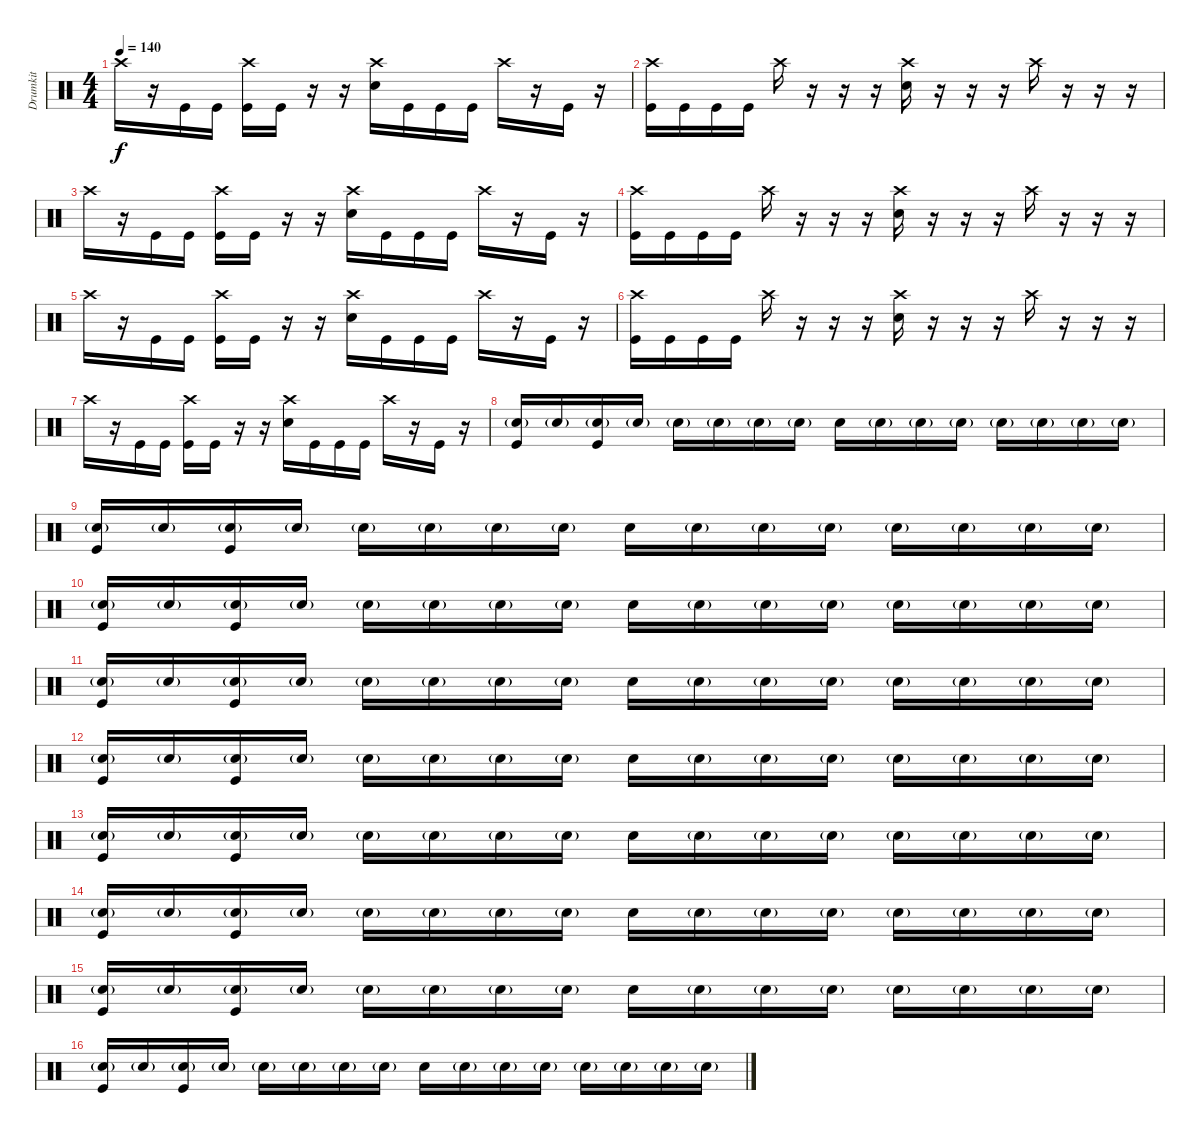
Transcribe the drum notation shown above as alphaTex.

\track ("Drumkit" "Drumkit") {instrument percussion}
\staff {score}
\articulation defaults
\ts (4 4)
\tempo 140
\clef neutral
\ks c "Crash high (hit)".16{dy f}
r.16 "Kick (hit)".16 "Kick (hit)".16 ("Crash high (hit)" "Kick (hit)").16 "Kick (hit)".16 r.16 r.16 ("Crash high (hit)" "Snare (hit) 2").16 "Kick (hit)".16 "Kick (hit)".16 "Kick (hit)".16 "Crash high (hit)".16 r.16 "Kick (hit)".16 r.16 |
("Crash high (hit)" "Kick (hit)").16 "Kick (hit)".16 "Kick (hit)".16 "Kick (hit)".16 "Crash high (hit)".16 r.16 r.16 r.16 ("Crash high (hit)" "Snare (hit) 2").16 r.16 r.16 r.16 "Crash high (hit)".16 r.16 r.16 r.16 |
"Crash high (hit)".16 r.16 "Kick (hit)".16 "Kick (hit)".16 ("Crash high (hit)" "Kick (hit)").16 "Kick (hit)".16 r.16 r.16 ("Crash high (hit)" "Snare (hit) 2").16 "Kick (hit)".16 "Kick (hit)".16 "Kick (hit)".16 "Crash high (hit)".16 r.16 "Kick (hit)".16 r.16 |
("Crash high (hit)" "Kick (hit)").16 "Kick (hit)".16 "Kick (hit)".16 "Kick (hit)".16 "Crash high (hit)".16 r.16 r.16 r.16 ("Crash high (hit)" "Snare (hit) 2").16 r.16 r.16 r.16 "Crash high (hit)".16 r.16 r.16 r.16 |
"Crash high (hit)".16 r.16 "Kick (hit)".16 "Kick (hit)".16 ("Crash high (hit)" "Kick (hit)").16 "Kick (hit)".16 r.16 r.16 ("Crash high (hit)" "Snare (hit) 2").16 "Kick (hit)".16 "Kick (hit)".16 "Kick (hit)".16 "Crash high (hit)".16 r.16 "Kick (hit)".16 r.16 |
("Crash high (hit)" "Kick (hit)").16 "Kick (hit)".16 "Kick (hit)".16 "Kick (hit)".16 "Crash high (hit)".16 r.16 r.16 r.16 ("Crash high (hit)" "Snare (hit) 2").16 r.16 r.16 r.16 "Crash high (hit)".16 r.16 r.16 r.16 |
"Crash high (hit)".16 r.16 "Kick (hit)".16 "Kick (hit)".16 ("Crash high (hit)" "Kick (hit)").16 "Kick (hit)".16 r.16 r.16 ("Crash high (hit)" "Snare (hit) 2").16 "Kick (hit)".16 "Kick (hit)".16 "Kick (hit)".16 "Crash high (hit)".16 r.16 "Kick (hit)".16 r.16 |
("Snare (hit) 2"{g} "Kick (hit)").16 "Snare (hit) 2"{g}.16 ("Snare (hit) 2"{g} "Kick (hit)").16 "Snare (hit) 2"{g}.16 "Snare (hit) 2"{g}.16 "Snare (hit) 2"{g}.16 "Snare (hit) 2"{g}.16 "Snare (hit) 2"{g}.16 "Snare (hit) 2".16 "Snare (hit) 2"{g}.16 "Snare (hit) 2"{g}.16 "Snare (hit) 2"{g}.16 "Snare (hit) 2"{g}.16 "Snare (hit) 2"{g}.16 "Snare (hit) 2"{g}.16 "Snare (hit) 2"{g}.16 |
("Snare (hit) 2"{g} "Kick (hit)").16 "Snare (hit) 2"{g}.16 ("Snare (hit) 2"{g} "Kick (hit)").16 "Snare (hit) 2"{g}.16 "Snare (hit) 2"{g}.16 "Snare (hit) 2"{g}.16 "Snare (hit) 2"{g}.16 "Snare (hit) 2"{g}.16 "Snare (hit) 2".16 "Snare (hit) 2"{g}.16 "Snare (hit) 2"{g}.16 "Snare (hit) 2"{g}.16 "Snare (hit) 2"{g}.16 "Snare (hit) 2"{g}.16 "Snare (hit) 2"{g}.16 "Snare (hit) 2"{g}.16 |
("Snare (hit) 2"{g} "Kick (hit)").16 "Snare (hit) 2"{g}.16 ("Snare (hit) 2"{g} "Kick (hit)").16 "Snare (hit) 2"{g}.16 "Snare (hit) 2"{g}.16 "Snare (hit) 2"{g}.16 "Snare (hit) 2"{g}.16 "Snare (hit) 2"{g}.16 "Snare (hit) 2".16 "Snare (hit) 2"{g}.16 "Snare (hit) 2"{g}.16 "Snare (hit) 2"{g}.16 "Snare (hit) 2"{g}.16 "Snare (hit) 2"{g}.16 "Snare (hit) 2"{g}.16 "Snare (hit) 2"{g}.16 |
("Snare (hit) 2"{g} "Kick (hit)").16 "Snare (hit) 2"{g}.16 ("Snare (hit) 2"{g} "Kick (hit)").16 "Snare (hit) 2"{g}.16 "Snare (hit) 2"{g}.16 "Snare (hit) 2"{g}.16 "Snare (hit) 2"{g}.16 "Snare (hit) 2"{g}.16 "Snare (hit) 2".16 "Snare (hit) 2"{g}.16 "Snare (hit) 2"{g}.16 "Snare (hit) 2"{g}.16 "Snare (hit) 2"{g}.16 "Snare (hit) 2"{g}.16 "Snare (hit) 2"{g}.16 "Snare (hit) 2"{g}.16 |
("Snare (hit) 2"{g} "Kick (hit)").16 "Snare (hit) 2"{g}.16 ("Snare (hit) 2"{g} "Kick (hit)").16 "Snare (hit) 2"{g}.16 "Snare (hit) 2"{g}.16 "Snare (hit) 2"{g}.16 "Snare (hit) 2"{g}.16 "Snare (hit) 2"{g}.16 "Snare (hit) 2".16 "Snare (hit) 2"{g}.16 "Snare (hit) 2"{g}.16 "Snare (hit) 2"{g}.16 "Snare (hit) 2"{g}.16 "Snare (hit) 2"{g}.16 "Snare (hit) 2"{g}.16 "Snare (hit) 2"{g}.16 |
("Snare (hit) 2"{g} "Kick (hit)").16 "Snare (hit) 2"{g}.16 ("Snare (hit) 2"{g} "Kick (hit)").16 "Snare (hit) 2"{g}.16 "Snare (hit) 2"{g}.16 "Snare (hit) 2"{g}.16 "Snare (hit) 2"{g}.16 "Snare (hit) 2"{g}.16 "Snare (hit) 2".16 "Snare (hit) 2"{g}.16 "Snare (hit) 2"{g}.16 "Snare (hit) 2"{g}.16 "Snare (hit) 2"{g}.16 "Snare (hit) 2"{g}.16 "Snare (hit) 2"{g}.16 "Snare (hit) 2"{g}.16 |
("Snare (hit) 2"{g} "Kick (hit)").16 "Snare (hit) 2"{g}.16 ("Snare (hit) 2"{g} "Kick (hit)").16 "Snare (hit) 2"{g}.16 "Snare (hit) 2"{g}.16 "Snare (hit) 2"{g}.16 "Snare (hit) 2"{g}.16 "Snare (hit) 2"{g}.16 "Snare (hit) 2".16 "Snare (hit) 2"{g}.16 "Snare (hit) 2"{g}.16 "Snare (hit) 2"{g}.16 "Snare (hit) 2"{g}.16 "Snare (hit) 2"{g}.16 "Snare (hit) 2"{g}.16 "Snare (hit) 2"{g}.16 |
("Snare (hit) 2"{g} "Kick (hit)").16 "Snare (hit) 2"{g}.16 ("Snare (hit) 2"{g} "Kick (hit)").16 "Snare (hit) 2"{g}.16 "Snare (hit) 2"{g}.16 "Snare (hit) 2"{g}.16 "Snare (hit) 2"{g}.16 "Snare (hit) 2"{g}.16 "Snare (hit) 2".16 "Snare (hit) 2"{g}.16 "Snare (hit) 2"{g}.16 "Snare (hit) 2"{g}.16 "Snare (hit) 2"{g}.16 "Snare (hit) 2"{g}.16 "Snare (hit) 2"{g}.16 "Snare (hit) 2"{g}.16 |
("Snare (hit) 2"{g} "Kick (hit)").16 "Snare (hit) 2"{g}.16 ("Snare (hit) 2"{g} "Kick (hit)").16 "Snare (hit) 2"{g}.16 "Snare (hit) 2"{g}.16 "Snare (hit) 2"{g}.16 "Snare (hit) 2"{g}.16 "Snare (hit) 2"{g}.16 "Snare (hit) 2".16 "Snare (hit) 2"{g}.16 "Snare (hit) 2"{g}.16 "Snare (hit) 2"{g}.16 "Snare (hit) 2"{g}.16 "Snare (hit) 2"{g}.16 "Snare (hit) 2"{g}.16 "Snare (hit) 2"{g}.16
